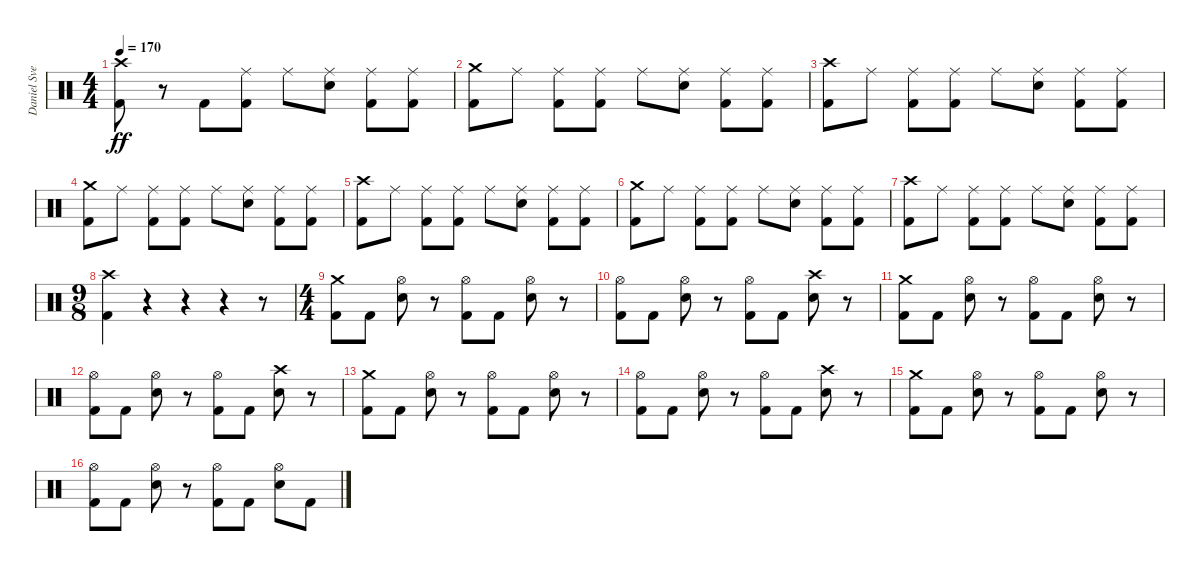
\track ("Daniel Svensson" "Daniel Sve") {instrument percussion}
\staff {score}
\articulation defaults
\ts (4 4)
\tempo 170
\clef neutral
\ks c
("Crash high (hit)" "Kick (hit) 2").8{dy ff} r.8 "Kick (hit) 2".8 ("Ride (middle)" "Kick (hit) 2").8 "Ride (middle)".8 ("Ride (middle)" "Electric Snare (hit)").8 ("Ride (middle)" "Kick (hit) 2").8 ("Ride (middle)" "Kick (hit) 2").8 |
("Crash medium (hit)" "Kick (hit) 2").8 "Ride (middle)".8 ("Ride (middle)" "Kick (hit) 2").8 ("Ride (middle)" "Kick (hit) 2").8 "Ride (middle)".8 ("Ride (middle)" "Electric Snare (hit)").8 ("Ride (middle)" "Kick (hit) 2").8 ("Ride (middle)" "Kick (hit) 2").8 |
("Crash high (hit)" "Kick (hit) 2").8 "Ride (middle)".8 ("Ride (middle)" "Kick (hit) 2").8 ("Ride (middle)" "Kick (hit) 2").8 "Ride (middle)".8 ("Ride (middle)" "Electric Snare (hit)").8 ("Ride (middle)" "Kick (hit) 2").8 ("Ride (middle)" "Kick (hit) 2").8 |
("Crash medium (hit)" "Kick (hit) 2").8 "Ride (middle)".8 ("Ride (middle)" "Kick (hit) 2").8 ("Ride (middle)" "Kick (hit) 2").8 "Ride (middle)".8 ("Ride (middle)" "Electric Snare (hit)").8 ("Ride (middle)" "Kick (hit) 2").8 ("Ride (middle)" "Kick (hit) 2").8 |
("Crash high (hit)" "Kick (hit) 2").8 "Ride (middle)".8 ("Ride (middle)" "Kick (hit) 2").8 ("Ride (middle)" "Kick (hit) 2").8 "Ride (middle)".8 ("Ride (middle)" "Electric Snare (hit)").8 ("Ride (middle)" "Kick (hit) 2").8 ("Ride (middle)" "Kick (hit) 2").8 |
("Crash medium (hit)" "Kick (hit) 2").8 "Ride (middle)".8 ("Ride (middle)" "Kick (hit) 2").8 ("Ride (middle)" "Kick (hit) 2").8 "Ride (middle)".8 ("Ride (middle)" "Electric Snare (hit)").8 ("Ride (middle)" "Kick (hit) 2").8 ("Ride (middle)" "Kick (hit) 2").8 |
("Crash high (hit)" "Kick (hit) 2").8 "Ride (middle)".8 ("Ride (middle)" "Kick (hit) 2").8 ("Ride (middle)" "Kick (hit) 2").8 "Ride (middle)".8 ("Ride (middle)" "Electric Snare (hit)").8 ("Ride (middle)" "Kick (hit) 2").8 ("Ride (middle)" "Kick (hit) 2").8 |
\ts (9 8)
("Crash high (hit)" "Kick (hit) 2").4 r.4 r.4 r.4 r.8 |
\ts (4 4)
("Crash medium (hit)" "Kick (hit) 2").8 "Kick (hit) 2".8 ("Hi-Hat (open)" "Electric Snare (hit)").8 r.8 ("Hi-Hat (open)" "Kick (hit) 2").8 "Kick (hit) 2".8 ("Hi-Hat (open)" "Electric Snare (hit)").8 r.8 |
("Hi-Hat (open)" "Kick (hit) 2").8 "Kick (hit) 2".8 ("Hi-Hat (open)" "Electric Snare (hit)").8 r.8 ("Hi-Hat (open)" "Kick (hit) 2").8 "Kick (hit) 2".8 ("Crash high (hit)" "Electric Snare (hit)").8 r.8 |
("Crash medium (hit)" "Kick (hit) 2").8 "Kick (hit) 2".8 ("Hi-Hat (open)" "Electric Snare (hit)").8 r.8 ("Hi-Hat (open)" "Kick (hit) 2").8 "Kick (hit) 2".8 ("Hi-Hat (open)" "Electric Snare (hit)").8 r.8 |
("Hi-Hat (open)" "Kick (hit) 2").8 "Kick (hit) 2".8 ("Hi-Hat (open)" "Electric Snare (hit)").8 r.8 ("Hi-Hat (open)" "Kick (hit) 2").8 "Kick (hit) 2".8 ("Crash high (hit)" "Electric Snare (hit)").8 r.8 |
("Crash medium (hit)" "Kick (hit) 2").8 "Kick (hit) 2".8 ("Hi-Hat (open)" "Electric Snare (hit)").8 r.8 ("Hi-Hat (open)" "Kick (hit) 2").8 "Kick (hit) 2".8 ("Hi-Hat (open)" "Electric Snare (hit)").8 r.8 |
("Hi-Hat (open)" "Kick (hit) 2").8 "Kick (hit) 2".8 ("Hi-Hat (open)" "Electric Snare (hit)").8 r.8 ("Hi-Hat (open)" "Kick (hit) 2").8 "Kick (hit) 2".8 ("Crash high (hit)" "Electric Snare (hit)").8 r.8 |
("Crash medium (hit)" "Kick (hit) 2").8 "Kick (hit) 2".8 ("Hi-Hat (open)" "Electric Snare (hit)").8 r.8 ("Hi-Hat (open)" "Kick (hit) 2").8 "Kick (hit) 2".8 ("Hi-Hat (open)" "Electric Snare (hit)").8 r.8 |
("Hi-Hat (open)" "Kick (hit) 2").8 "Kick (hit) 2".8 ("Hi-Hat (open)" "Electric Snare (hit)").8 r.8 ("Hi-Hat (open)" "Kick (hit) 2").8 "Kick (hit) 2".8 ("Hi-Hat (open)" "Electric Snare (hit)").8 "Kick (hit) 2".8
